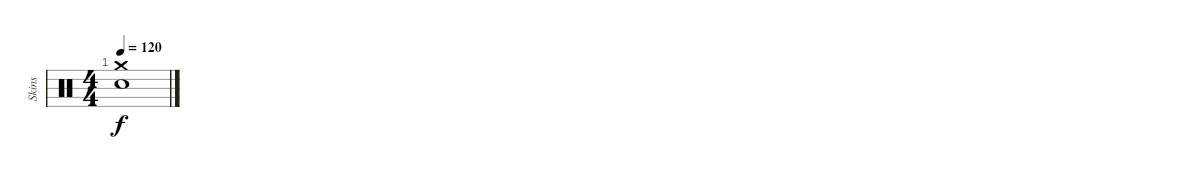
\track ("Skins" "Skins") {instrument percussion}
\staff {score}
\articulation defaults
\ts (4 4)
\tempo 120
\clef neutral
\ks c
("Crash medium (hit)" "Electric Snare (hit)").1{dy f}
